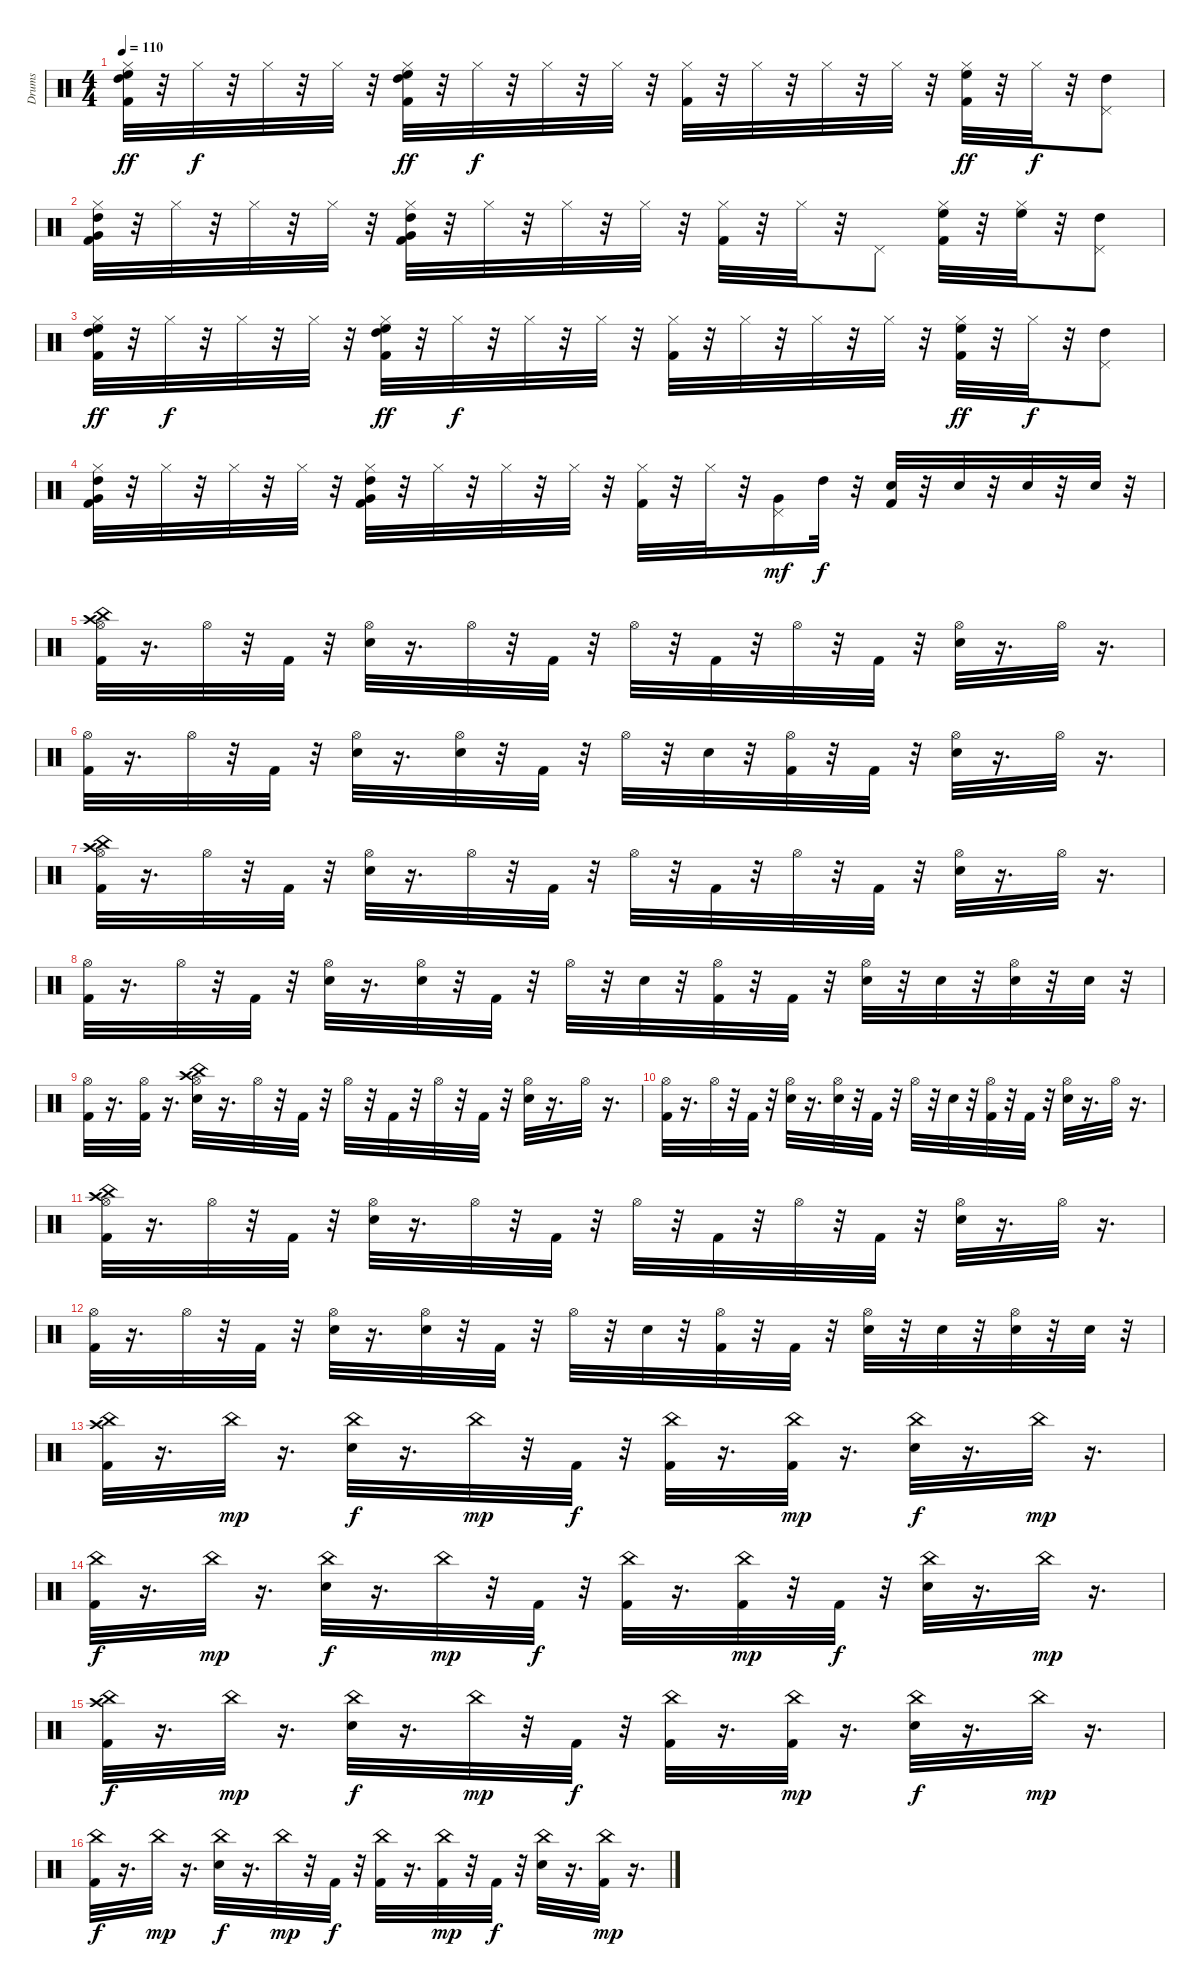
\track ("Drums" "Drums") {instrument percussion}
\staff {score}
\articulation defaults
\ts (4 4)
\tempo 110
\clef neutral
\ks c
("Kick (hit) 2" "Hi-Hat (closed)" "High Tom (hit)" "High Floor Tom (hit)").32{dy ff} r.32 "Hi-Hat (closed)".32{dy f} r.32 "Hi-Hat (closed)".32 r.32 "Hi-Hat (closed)".32 r.32 ("Kick (hit) 2" "Hi-Hat (closed)" "High Tom (hit)" "High Floor Tom (hit)").32{dy ff} r.32 "Hi-Hat (closed)".32{dy f} r.32 "Hi-Hat (closed)".32 r.32 "Hi-Hat (closed)".32 r.32 ("Kick (hit) 2" "Hi-Hat (closed)").32 r.32 "Hi-Hat (closed)".32 r.32 "Hi-Hat (closed)".32 r.32 "Hi-Hat (closed)".32 r.32 ("Kick (hit) 2" "Hi-Hat (closed)" "High Floor Tom (hit)").32{dy ff} r.32 "Hi-Hat (closed)".32{dy f} r.32 ("Pedal Hi-Hat (hit)" "High Tom (hit)").8 |
("Kick (hit) 2" "Hi-Hat (closed)" "Very Low Tom (hit)" "High Tom (hit)").32 r.32 "Hi-Hat (closed)".32 r.32 "Hi-Hat (closed)".32 r.32 "Hi-Hat (closed)".32 r.32 ("Kick (hit) 2" "Hi-Hat (closed)" "Very Low Tom (hit)" "High Tom (hit)").32 r.32 "Hi-Hat (closed)".32 r.32 "Hi-Hat (closed)".32 r.32 "Hi-Hat (closed)".32 r.32 ("Kick (hit) 2" "Hi-Hat (closed)").32 r.32 "Hi-Hat (closed)".32 r.32 "Pedal Hi-Hat (hit)".8 ("Kick (hit) 2" "Hi-Hat (closed)" "High Floor Tom (hit)").32 r.32 ("Hi-Hat (closed)" "High Floor Tom (hit)").32 r.32 ("Pedal Hi-Hat (hit)" "High Tom (hit)").8 |
("Kick (hit) 2" "Hi-Hat (closed)" "High Tom (hit)" "High Floor Tom (hit)").32{dy ff} r.32 "Hi-Hat (closed)".32{dy f} r.32 "Hi-Hat (closed)".32 r.32 "Hi-Hat (closed)".32 r.32 ("Kick (hit) 2" "Hi-Hat (closed)" "High Tom (hit)" "High Floor Tom (hit)").32{dy ff} r.32 "Hi-Hat (closed)".32{dy f} r.32 "Hi-Hat (closed)".32 r.32 "Hi-Hat (closed)".32 r.32 ("Kick (hit) 2" "Hi-Hat (closed)").32 r.32 "Hi-Hat (closed)".32 r.32 "Hi-Hat (closed)".32 r.32 "Hi-Hat (closed)".32 r.32 ("Kick (hit) 2" "Hi-Hat (closed)" "High Floor Tom (hit)").32{dy ff} r.32 "Hi-Hat (closed)".32{dy f} r.32 ("Pedal Hi-Hat (hit)" "High Tom (hit)").8 |
("Kick (hit) 2" "Hi-Hat (closed)" "Very Low Tom (hit)" "High Tom (hit)").32 r.32 "Hi-Hat (closed)".32 r.32 "Hi-Hat (closed)".32 r.32 "Hi-Hat (closed)".32 r.32 ("Kick (hit) 2" "Hi-Hat (closed)" "Very Low Tom (hit)" "High Tom (hit)").32 r.32 "Hi-Hat (closed)".32 r.32 "Hi-Hat (closed)".32 r.32 "Hi-Hat (closed)".32 r.32 ("Kick (hit) 2" "Hi-Hat (closed)").32 r.32 "Hi-Hat (closed)".32 r.32 ("Very Low Tom (hit)" "Pedal Hi-Hat (hit)").16{dy mf} "High Tom (hit)".32{dy f} r.32 ("Kick (hit) 2" "Snare (hit) 2").32 r.32 "Snare (hit) 2".32 r.32 "Snare (hit) 2".32 r.32 "Snare (hit) 2".32 r.32 |
("Kick (hit) 2" "Hi-Hat (open)" "Crash high (hit)" "China (hit)").32 r.16{d} "Hi-Hat (open)".32 r.32 "Kick (hit) 2".32 r.32 ("Snare (hit) 2" "Hi-Hat (open)").32 r.16{d} "Hi-Hat (open)".32 r.32 "Kick (hit) 2".32 r.32 "Hi-Hat (open)".32 r.32 "Kick (hit) 2".32 r.32 "Hi-Hat (open)".32 r.32 "Kick (hit) 2".32 r.32 ("Snare (hit) 2" "Hi-Hat (open)").32 r.16{d} "Hi-Hat (open)".32 r.16{d} |
("Kick (hit) 2" "Hi-Hat (open)").32 r.16{d} "Hi-Hat (open)".32 r.32 "Kick (hit) 2".32 r.32 ("Snare (hit) 2" "Hi-Hat (open)").32 r.16{d} ("Snare (hit) 2" "Hi-Hat (open)").32 r.32 "Kick (hit) 2".32 r.32 "Hi-Hat (open)".32 r.32 "Snare (hit) 2".32 r.32 ("Kick (hit) 2" "Hi-Hat (open)").32 r.32 "Kick (hit) 2".32 r.32 ("Snare (hit) 2" "Hi-Hat (open)").32 r.16{d} "Hi-Hat (open)".32 r.16{d} |
("Kick (hit) 2" "Hi-Hat (open)" "Crash high (hit)" "China (hit)").32 r.16{d} "Hi-Hat (open)".32 r.32 "Kick (hit) 2".32 r.32 ("Snare (hit) 2" "Hi-Hat (open)").32 r.16{d} "Hi-Hat (open)".32 r.32 "Kick (hit) 2".32 r.32 "Hi-Hat (open)".32 r.32 "Kick (hit) 2".32 r.32 "Hi-Hat (open)".32 r.32 "Kick (hit) 2".32 r.32 ("Snare (hit) 2" "Hi-Hat (open)").32 r.16{d} "Hi-Hat (open)".32 r.16{d} |
("Kick (hit) 2" "Hi-Hat (open)").32 r.16{d} "Hi-Hat (open)".32 r.32 "Kick (hit) 2".32 r.32 ("Snare (hit) 2" "Hi-Hat (open)").32 r.16{d} ("Snare (hit) 2" "Hi-Hat (open)").32 r.32 "Kick (hit) 2".32 r.32 "Hi-Hat (open)".32 r.32 "Snare (hit) 2".32 r.32 ("Kick (hit) 2" "Hi-Hat (open)").32 r.32 "Kick (hit) 2".32 r.32 ("Snare (hit) 2" "Hi-Hat (open)").32 r.32 "Snare (hit) 2".32 r.32 ("Snare (hit) 2" "Hi-Hat (open)").32 r.32 "Snare (hit) 2".32 r.32 |
("Kick (hit) 2" "Hi-Hat (open)").32 r.16{d} ("Kick (hit) 2" "Hi-Hat (open)").32 r.16{d} ("Snare (hit) 2" "Hi-Hat (open)" "Crash high (hit)" "China (hit)").32 r.16{d} "Hi-Hat (open)".32 r.32 "Kick (hit) 2".32 r.32 "Hi-Hat (open)".32 r.32 "Kick (hit) 2".32 r.32 "Hi-Hat (open)".32 r.32 "Kick (hit) 2".32 r.32 ("Snare (hit) 2" "Hi-Hat (open)").32 r.16{d} "Hi-Hat (open)".32 r.16{d} |
("Kick (hit) 2" "Hi-Hat (open)").32 r.16{d} "Hi-Hat (open)".32 r.32 "Kick (hit) 2".32 r.32 ("Snare (hit) 2" "Hi-Hat (open)").32 r.16{d} ("Snare (hit) 2" "Hi-Hat (open)").32 r.32 "Kick (hit) 2".32 r.32 "Hi-Hat (open)".32 r.32 "Snare (hit) 2".32 r.32 ("Kick (hit) 2" "Hi-Hat (open)").32 r.32 "Kick (hit) 2".32 r.32 ("Snare (hit) 2" "Hi-Hat (open)").32 r.16{d} "Hi-Hat (open)".32 r.16{d} |
("Kick (hit) 2" "Hi-Hat (open)" "Crash high (hit)" "China (hit)").32 r.16{d} "Hi-Hat (open)".32 r.32 "Kick (hit) 2".32 r.32 ("Snare (hit) 2" "Hi-Hat (open)").32 r.16{d} "Hi-Hat (open)".32 r.32 "Kick (hit) 2".32 r.32 "Hi-Hat (open)".32 r.32 "Kick (hit) 2".32 r.32 "Hi-Hat (open)".32 r.32 "Kick (hit) 2".32 r.32 ("Snare (hit) 2" "Hi-Hat (open)").32 r.16{d} "Hi-Hat (open)".32 r.16{d} |
("Kick (hit) 2" "Hi-Hat (open)").32 r.16{d} "Hi-Hat (open)".32 r.32 "Kick (hit) 2".32 r.32 ("Snare (hit) 2" "Hi-Hat (open)").32 r.16{d} ("Snare (hit) 2" "Hi-Hat (open)").32 r.32 "Kick (hit) 2".32 r.32 "Hi-Hat (open)".32 r.32 "Snare (hit) 2".32 r.32 ("Kick (hit) 2" "Hi-Hat (open)").32 r.32 "Kick (hit) 2".32 r.32 ("Snare (hit) 2" "Hi-Hat (open)").32 r.32 "Snare (hit) 2".32 r.32 ("Snare (hit) 2" "Hi-Hat (open)").32 r.32 "Snare (hit) 2".32 r.32 |
("Kick (hit) 2" "Crash high (hit)" "China (hit)").32 r.16{d} "China (hit)".32{dy mp} r.16{d} ("Snare (hit) 2" "China (hit)").32{dy f} r.16{d} "China (hit)".32{dy mp} r.32 "Kick (hit) 2".32{dy f} r.32 ("Kick (hit) 2" "China (hit)").32 r.16{d} ("Kick (hit) 2" "China (hit)").32{dy mp} r.16{d} ("Snare (hit) 2" "China (hit)").32{dy f} r.16{d} "China (hit)".32{dy mp} r.16{d} |
("Kick (hit) 2" "China (hit)").32{dy f} r.16{d} "China (hit)".32{dy mp} r.16{d} ("Snare (hit) 2" "China (hit)").32{dy f} r.16{d} "China (hit)".32{dy mp} r.32 "Kick (hit) 2".32{dy f} r.32 ("Kick (hit) 2" "China (hit)").32 r.16{d} ("Kick (hit) 2" "China (hit)").32{dy mp} r.32 "Kick (hit) 2".32{dy f} r.32 ("Snare (hit) 2" "China (hit)").32 r.16{d} "China (hit)".32{dy mp} r.16{d} |
("Kick (hit) 2" "Crash high (hit)" "China (hit)").32{dy f} r.16{d} "China (hit)".32{dy mp} r.16{d} ("Snare (hit) 2" "China (hit)").32{dy f} r.16{d} "China (hit)".32{dy mp} r.32 "Kick (hit) 2".32{dy f} r.32 ("Kick (hit) 2" "China (hit)").32 r.16{d} ("Kick (hit) 2" "China (hit)").32{dy mp} r.16{d} ("Snare (hit) 2" "China (hit)").32{dy f} r.16{d} "China (hit)".32{dy mp} r.16{d} |
("Kick (hit) 2" "China (hit)").32{dy f} r.16{d} "China (hit)".32{dy mp} r.16{d} ("Snare (hit) 2" "China (hit)").32{dy f} r.16{d} "China (hit)".32{dy mp} r.32 "Kick (hit) 2".32{dy f} r.32 ("Kick (hit) 2" "China (hit)").32 r.16{d} ("Kick (hit) 2" "China (hit)").32{dy mp} r.32 "Kick (hit) 2".32{dy f} r.32 ("Snare (hit) 2" "China (hit)").32 r.16{d} ("Kick (hit) 2" "China (hit)").32{dy mp} r.16{d}
